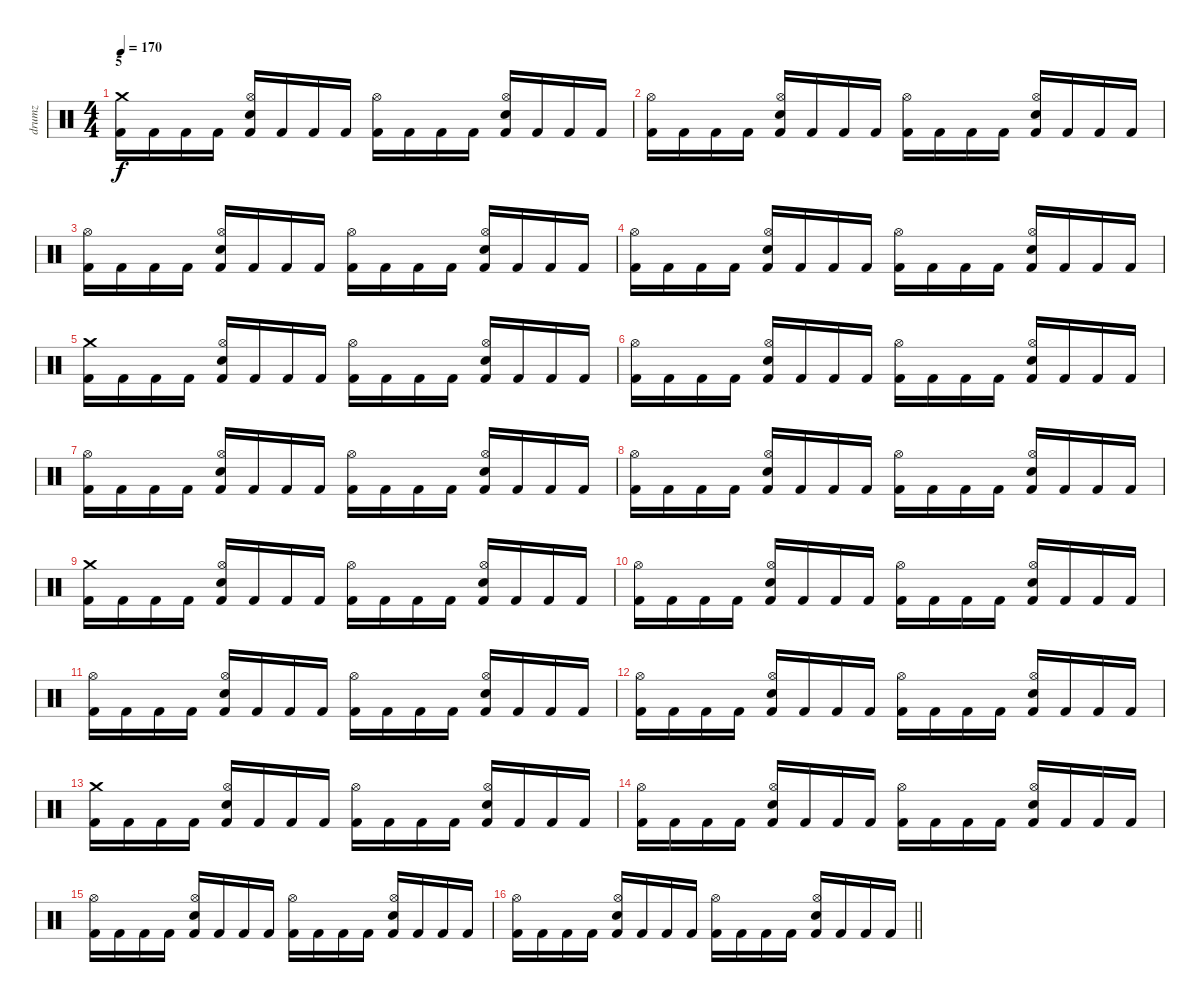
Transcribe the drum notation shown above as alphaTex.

\track ("drumz" "drumz") {instrument percussion}
\staff {score}
\articulation defaults
\ts (4 4)
\section ("" "5")
\tempo 170
\clef neutral
\ks c
("Crash medium (hit)" "Kick (hit) 2").16{dy f} "Kick (hit) 2".16 "Kick (hit) 2".16 "Kick (hit) 2".16 ("Hi-Hat (open)" "Electric Snare (hit)" "Kick (hit) 2").16 "Kick (hit) 2".16 "Kick (hit) 2".16 "Kick (hit) 2".16 ("Hi-Hat (open)" "Kick (hit) 2").16 "Kick (hit) 2".16 "Kick (hit) 2".16 "Kick (hit) 2".16 ("Hi-Hat (open)" "Electric Snare (hit)" "Kick (hit) 2").16 "Kick (hit) 2".16 "Kick (hit) 2".16 "Kick (hit) 2".16 |
("Hi-Hat (open)" "Kick (hit) 2").16 "Kick (hit) 2".16 "Kick (hit) 2".16 "Kick (hit) 2".16 ("Hi-Hat (open)" "Electric Snare (hit)" "Kick (hit) 2").16 "Kick (hit) 2".16 "Kick (hit) 2".16 "Kick (hit) 2".16 ("Hi-Hat (open)" "Kick (hit) 2").16 "Kick (hit) 2".16 "Kick (hit) 2".16 "Kick (hit) 2".16 ("Hi-Hat (open)" "Electric Snare (hit)" "Kick (hit) 2").16 "Kick (hit) 2".16 "Kick (hit) 2".16 "Kick (hit) 2".16 |
("Hi-Hat (open)" "Kick (hit) 2").16 "Kick (hit) 2".16 "Kick (hit) 2".16 "Kick (hit) 2".16 ("Hi-Hat (open)" "Electric Snare (hit)" "Kick (hit) 2").16 "Kick (hit) 2".16 "Kick (hit) 2".16 "Kick (hit) 2".16 ("Hi-Hat (open)" "Kick (hit) 2").16 "Kick (hit) 2".16 "Kick (hit) 2".16 "Kick (hit) 2".16 ("Hi-Hat (open)" "Electric Snare (hit)" "Kick (hit) 2").16 "Kick (hit) 2".16 "Kick (hit) 2".16 "Kick (hit) 2".16 |
("Hi-Hat (open)" "Kick (hit) 2").16 "Kick (hit) 2".16 "Kick (hit) 2".16 "Kick (hit) 2".16 ("Hi-Hat (open)" "Electric Snare (hit)" "Kick (hit) 2").16 "Kick (hit) 2".16 "Kick (hit) 2".16 "Kick (hit) 2".16 ("Hi-Hat (open)" "Kick (hit) 2").16 "Kick (hit) 2".16 "Kick (hit) 2".16 "Kick (hit) 2".16 ("Hi-Hat (open)" "Electric Snare (hit)" "Kick (hit) 2").16 "Kick (hit) 2".16 "Kick (hit) 2".16 "Kick (hit) 2".16 |
("Crash medium (hit)" "Kick (hit) 2").16 "Kick (hit) 2".16 "Kick (hit) 2".16 "Kick (hit) 2".16 ("Hi-Hat (open)" "Electric Snare (hit)" "Kick (hit) 2").16 "Kick (hit) 2".16 "Kick (hit) 2".16 "Kick (hit) 2".16 ("Hi-Hat (open)" "Kick (hit) 2").16 "Kick (hit) 2".16 "Kick (hit) 2".16 "Kick (hit) 2".16 ("Hi-Hat (open)" "Electric Snare (hit)" "Kick (hit) 2").16 "Kick (hit) 2".16 "Kick (hit) 2".16 "Kick (hit) 2".16 |
("Hi-Hat (open)" "Kick (hit) 2").16 "Kick (hit) 2".16 "Kick (hit) 2".16 "Kick (hit) 2".16 ("Hi-Hat (open)" "Electric Snare (hit)" "Kick (hit) 2").16 "Kick (hit) 2".16 "Kick (hit) 2".16 "Kick (hit) 2".16 ("Hi-Hat (open)" "Kick (hit) 2").16 "Kick (hit) 2".16 "Kick (hit) 2".16 "Kick (hit) 2".16 ("Hi-Hat (open)" "Electric Snare (hit)" "Kick (hit) 2").16 "Kick (hit) 2".16 "Kick (hit) 2".16 "Kick (hit) 2".16 |
("Hi-Hat (open)" "Kick (hit) 2").16 "Kick (hit) 2".16 "Kick (hit) 2".16 "Kick (hit) 2".16 ("Hi-Hat (open)" "Electric Snare (hit)" "Kick (hit) 2").16 "Kick (hit) 2".16 "Kick (hit) 2".16 "Kick (hit) 2".16 ("Hi-Hat (open)" "Kick (hit) 2").16 "Kick (hit) 2".16 "Kick (hit) 2".16 "Kick (hit) 2".16 ("Hi-Hat (open)" "Electric Snare (hit)" "Kick (hit) 2").16 "Kick (hit) 2".16 "Kick (hit) 2".16 "Kick (hit) 2".16 |
("Hi-Hat (open)" "Kick (hit) 2").16 "Kick (hit) 2".16 "Kick (hit) 2".16 "Kick (hit) 2".16 ("Hi-Hat (open)" "Electric Snare (hit)" "Kick (hit) 2").16 "Kick (hit) 2".16 "Kick (hit) 2".16 "Kick (hit) 2".16 ("Hi-Hat (open)" "Kick (hit) 2").16 "Kick (hit) 2".16 "Kick (hit) 2".16 "Kick (hit) 2".16 ("Hi-Hat (open)" "Electric Snare (hit)" "Kick (hit) 2").16 "Kick (hit) 2".16 "Kick (hit) 2".16 "Kick (hit) 2".16 |
("Crash medium (hit)" "Kick (hit) 2").16 "Kick (hit) 2".16 "Kick (hit) 2".16 "Kick (hit) 2".16 ("Hi-Hat (open)" "Electric Snare (hit)" "Kick (hit) 2").16 "Kick (hit) 2".16 "Kick (hit) 2".16 "Kick (hit) 2".16 ("Hi-Hat (open)" "Kick (hit) 2").16 "Kick (hit) 2".16 "Kick (hit) 2".16 "Kick (hit) 2".16 ("Hi-Hat (open)" "Electric Snare (hit)" "Kick (hit) 2").16 "Kick (hit) 2".16 "Kick (hit) 2".16 "Kick (hit) 2".16 |
("Hi-Hat (open)" "Kick (hit) 2").16 "Kick (hit) 2".16 "Kick (hit) 2".16 "Kick (hit) 2".16 ("Hi-Hat (open)" "Electric Snare (hit)" "Kick (hit) 2").16 "Kick (hit) 2".16 "Kick (hit) 2".16 "Kick (hit) 2".16 ("Hi-Hat (open)" "Kick (hit) 2").16 "Kick (hit) 2".16 "Kick (hit) 2".16 "Kick (hit) 2".16 ("Hi-Hat (open)" "Electric Snare (hit)" "Kick (hit) 2").16 "Kick (hit) 2".16 "Kick (hit) 2".16 "Kick (hit) 2".16 |
("Hi-Hat (open)" "Kick (hit) 2").16 "Kick (hit) 2".16 "Kick (hit) 2".16 "Kick (hit) 2".16 ("Hi-Hat (open)" "Electric Snare (hit)" "Kick (hit) 2").16 "Kick (hit) 2".16 "Kick (hit) 2".16 "Kick (hit) 2".16 ("Hi-Hat (open)" "Kick (hit) 2").16 "Kick (hit) 2".16 "Kick (hit) 2".16 "Kick (hit) 2".16 ("Hi-Hat (open)" "Electric Snare (hit)" "Kick (hit) 2").16 "Kick (hit) 2".16 "Kick (hit) 2".16 "Kick (hit) 2".16 |
("Hi-Hat (open)" "Kick (hit) 2").16 "Kick (hit) 2".16 "Kick (hit) 2".16 "Kick (hit) 2".16 ("Hi-Hat (open)" "Electric Snare (hit)" "Kick (hit) 2").16 "Kick (hit) 2".16 "Kick (hit) 2".16 "Kick (hit) 2".16 ("Hi-Hat (open)" "Kick (hit) 2").16 "Kick (hit) 2".16 "Kick (hit) 2".16 "Kick (hit) 2".16 ("Hi-Hat (open)" "Electric Snare (hit)" "Kick (hit) 2").16 "Kick (hit) 2".16 "Kick (hit) 2".16 "Kick (hit) 2".16 |
("Crash medium (hit)" "Kick (hit) 2").16 "Kick (hit) 2".16 "Kick (hit) 2".16 "Kick (hit) 2".16 ("Hi-Hat (open)" "Electric Snare (hit)" "Kick (hit) 2").16 "Kick (hit) 2".16 "Kick (hit) 2".16 "Kick (hit) 2".16 ("Hi-Hat (open)" "Kick (hit) 2").16 "Kick (hit) 2".16 "Kick (hit) 2".16 "Kick (hit) 2".16 ("Hi-Hat (open)" "Electric Snare (hit)" "Kick (hit) 2").16 "Kick (hit) 2".16 "Kick (hit) 2".16 "Kick (hit) 2".16 |
("Hi-Hat (open)" "Kick (hit) 2").16 "Kick (hit) 2".16 "Kick (hit) 2".16 "Kick (hit) 2".16 ("Hi-Hat (open)" "Electric Snare (hit)" "Kick (hit) 2").16 "Kick (hit) 2".16 "Kick (hit) 2".16 "Kick (hit) 2".16 ("Hi-Hat (open)" "Kick (hit) 2").16 "Kick (hit) 2".16 "Kick (hit) 2".16 "Kick (hit) 2".16 ("Hi-Hat (open)" "Electric Snare (hit)" "Kick (hit) 2").16 "Kick (hit) 2".16 "Kick (hit) 2".16 "Kick (hit) 2".16 |
("Hi-Hat (open)" "Kick (hit) 2").16 "Kick (hit) 2".16 "Kick (hit) 2".16 "Kick (hit) 2".16 ("Hi-Hat (open)" "Electric Snare (hit)" "Kick (hit) 2").16 "Kick (hit) 2".16 "Kick (hit) 2".16 "Kick (hit) 2".16 ("Hi-Hat (open)" "Kick (hit) 2").16 "Kick (hit) 2".16 "Kick (hit) 2".16 "Kick (hit) 2".16 ("Hi-Hat (open)" "Electric Snare (hit)" "Kick (hit) 2").16 "Kick (hit) 2".16 "Kick (hit) 2".16 "Kick (hit) 2".16 |
\barLineRight lightlight
("Hi-Hat (open)" "Kick (hit) 2").16 "Kick (hit) 2".16 "Kick (hit) 2".16 "Kick (hit) 2".16 ("Hi-Hat (open)" "Electric Snare (hit)" "Kick (hit) 2").16 "Kick (hit) 2".16 "Kick (hit) 2".16 "Kick (hit) 2".16 ("Hi-Hat (open)" "Kick (hit) 2").16 "Kick (hit) 2".16 "Kick (hit) 2".16 "Kick (hit) 2".16 ("Hi-Hat (open)" "Electric Snare (hit)" "Kick (hit) 2").16 "Kick (hit) 2".16 "Kick (hit) 2".16 "Kick (hit) 2".16
